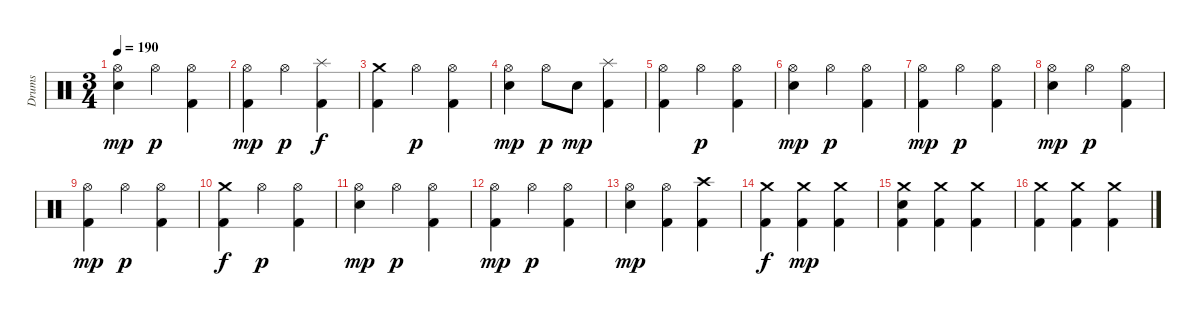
\track ("Drums" "Drums") {instrument percussion}
\staff {score}
\articulation defaults
\ts (3 4)
\tempo 190
\clef neutral
\ks c
("Hi-Hat (open)" "Electric Snare (hit)").4{dy mp} "Hi-Hat (open)".4{dy p} ("Hi-Hat (open)" "Kick (hit) 2").4 |
("Hi-Hat (open)" "Kick (hit) 2").4{dy mp} "Hi-Hat (open)".4{dy p} ("Splash (hit)" "Kick (hit) 2").4{dy f} |
("Crash medium (hit)" "Kick (hit) 2").4 "Hi-Hat (open)".4{dy p} ("Hi-Hat (open)" "Kick (hit) 2").4 |
("Hi-Hat (open)" "Electric Snare (hit)").4{dy mp} "Hi-Hat (open)".8{dy p} "Electric Snare (hit)".8{dy mp} ("Splash (hit)" "Kick (hit) 2").4 |
("Hi-Hat (open)" "Kick (hit) 2").4 "Hi-Hat (open)".4{dy p} ("Hi-Hat (open)" "Kick (hit) 2").4 |
("Hi-Hat (open)" "Electric Snare (hit)").4{dy mp} "Hi-Hat (open)".4{dy p} ("Hi-Hat (open)" "Kick (hit) 2").4 |
("Hi-Hat (open)" "Kick (hit) 2").4{dy mp} "Hi-Hat (open)".4{dy p} ("Hi-Hat (open)" "Kick (hit) 2").4 |
("Hi-Hat (open)" "Electric Snare (hit)").4{dy mp} "Hi-Hat (open)".4{dy p} ("Hi-Hat (open)" "Kick (hit) 2").4 |
("Hi-Hat (open)" "Kick (hit) 2").4{dy mp} "Hi-Hat (open)".4{dy p} ("Hi-Hat (open)" "Kick (hit) 2").4 |
("Crash medium (hit)" "Kick (hit) 2").4{dy f} "Hi-Hat (open)".4{dy p} ("Hi-Hat (open)" "Kick (hit) 2").4 |
("Hi-Hat (open)" "Electric Snare (hit)").4{dy mp} "Hi-Hat (open)".4{dy p} ("Hi-Hat (open)" "Kick (hit) 2").4 |
("Hi-Hat (open)" "Kick (hit) 2").4{dy mp} "Hi-Hat (open)".4{dy p} ("Hi-Hat (open)" "Kick (hit) 2").4 |
("Hi-Hat (open)" "Electric Snare (hit)").4{dy mp} ("Hi-Hat (open)" "Kick (hit) 2").4 ("Crash high (hit)" "Kick (hit) 2").4 |
("Crash medium (hit)" "Kick (hit) 2").4{dy f} ("Crash medium (hit)" "Kick (hit) 2").4{dy mp} ("Crash medium (hit)" "Kick (hit) 2").4 |
("Crash medium (hit)" "Electric Snare (hit)" "Kick (hit) 2").4 ("Crash medium (hit)" "Kick (hit) 2").4 ("Crash medium (hit)" "Kick (hit) 2").4 |
("Crash medium (hit)" "Kick (hit) 2").4 ("Crash medium (hit)" "Kick (hit) 2").4 ("Crash medium (hit)" "Kick (hit) 2").4
